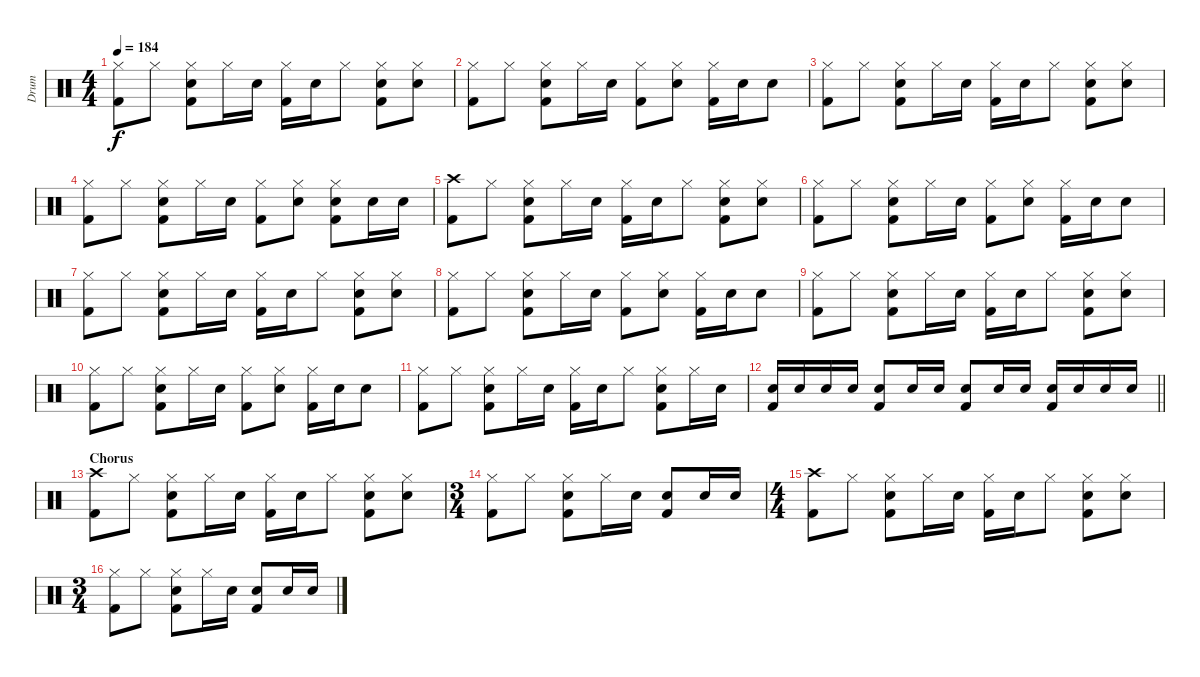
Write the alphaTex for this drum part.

\track ("Drum" "Drum") {instrument percussion}
\staff {score}
\articulation defaults
\ts (4 4)
\tempo 184
\clef neutral
\ks c
("Hi-Hat (closed)" "Kick (hit) 2").8{dy f} "Hi-Hat (closed)".8 ("Hi-Hat (closed)" "Electric Snare (hit)" "Kick (hit) 2").8 "Hi-Hat (closed)".16 "Electric Snare (hit)".16 ("Hi-Hat (closed)" "Kick (hit) 2").16 "Electric Snare (hit)".16 "Hi-Hat (closed)".8 ("Hi-Hat (closed)" "Electric Snare (hit)" "Kick (hit) 2").8 ("Hi-Hat (closed)" "Electric Snare (hit)").8 |
("Hi-Hat (closed)" "Kick (hit) 2").8 "Hi-Hat (closed)".8 ("Hi-Hat (closed)" "Electric Snare (hit)" "Kick (hit) 2").8 "Hi-Hat (closed)".16 "Electric Snare (hit)".16 ("Hi-Hat (closed)" "Kick (hit) 2").8 ("Hi-Hat (closed)" "Electric Snare (hit)").8 ("Hi-Hat (closed)" "Kick (hit) 2").16 "Electric Snare (hit)".16 "Electric Snare (hit)".8 |
("Hi-Hat (closed)" "Kick (hit) 2").8 "Hi-Hat (closed)".8 ("Hi-Hat (closed)" "Electric Snare (hit)" "Kick (hit) 2").8 "Hi-Hat (closed)".16 "Electric Snare (hit)".16 ("Hi-Hat (closed)" "Kick (hit) 2").16 "Electric Snare (hit)".16 "Hi-Hat (closed)".8 ("Hi-Hat (closed)" "Electric Snare (hit)" "Kick (hit) 2").8 ("Hi-Hat (closed)" "Electric Snare (hit)").8 |
("Hi-Hat (closed)" "Kick (hit) 2").8 "Hi-Hat (closed)".8 ("Hi-Hat (closed)" "Electric Snare (hit)" "Kick (hit) 2").8 "Hi-Hat (closed)".16 "Electric Snare (hit)".16 ("Hi-Hat (closed)" "Kick (hit) 2").8 ("Hi-Hat (closed)" "Electric Snare (hit)").8 ("Hi-Hat (closed)" "Electric Snare (hit)" "Kick (hit) 2").8 "Electric Snare (hit)".16 "Electric Snare (hit)".16 |
("Crash high (hit)" "Kick (hit) 2").8 "Hi-Hat (closed)".8 ("Hi-Hat (closed)" "Electric Snare (hit)" "Kick (hit) 2").8 "Hi-Hat (closed)".16 "Electric Snare (hit)".16 ("Hi-Hat (closed)" "Kick (hit) 2").16 "Electric Snare (hit)".16 "Hi-Hat (closed)".8 ("Hi-Hat (closed)" "Electric Snare (hit)" "Kick (hit) 2").8 ("Hi-Hat (closed)" "Electric Snare (hit)").8 |
("Hi-Hat (closed)" "Kick (hit) 2").8 "Hi-Hat (closed)".8 ("Hi-Hat (closed)" "Electric Snare (hit)" "Kick (hit) 2").8 "Hi-Hat (closed)".16 "Electric Snare (hit)".16 ("Hi-Hat (closed)" "Kick (hit) 2").8 ("Hi-Hat (closed)" "Electric Snare (hit)").8 ("Hi-Hat (closed)" "Kick (hit) 2").16 "Electric Snare (hit)".16 "Electric Snare (hit)".8 |
("Hi-Hat (closed)" "Kick (hit) 2").8 "Hi-Hat (closed)".8 ("Hi-Hat (closed)" "Electric Snare (hit)" "Kick (hit) 2").8 "Hi-Hat (closed)".16 "Electric Snare (hit)".16 ("Hi-Hat (closed)" "Kick (hit) 2").16 "Electric Snare (hit)".16 "Hi-Hat (closed)".8 ("Hi-Hat (closed)" "Electric Snare (hit)" "Kick (hit) 2").8 ("Hi-Hat (closed)" "Electric Snare (hit)").8 |
("Hi-Hat (closed)" "Kick (hit) 2").8 "Hi-Hat (closed)".8 ("Hi-Hat (closed)" "Electric Snare (hit)" "Kick (hit) 2").8 "Hi-Hat (closed)".16 "Electric Snare (hit)".16 ("Hi-Hat (closed)" "Kick (hit) 2").8 ("Hi-Hat (closed)" "Electric Snare (hit)").8 ("Hi-Hat (closed)" "Kick (hit) 2").16 "Electric Snare (hit)".16 "Electric Snare (hit)".8 |
("Hi-Hat (closed)" "Kick (hit) 2").8 "Hi-Hat (closed)".8 ("Hi-Hat (closed)" "Electric Snare (hit)" "Kick (hit) 2").8 "Hi-Hat (closed)".16 "Electric Snare (hit)".16 ("Hi-Hat (closed)" "Kick (hit) 2").16 "Electric Snare (hit)".16 "Hi-Hat (closed)".8 ("Hi-Hat (closed)" "Electric Snare (hit)" "Kick (hit) 2").8 ("Hi-Hat (closed)" "Electric Snare (hit)").8 |
("Hi-Hat (closed)" "Kick (hit) 2").8 "Hi-Hat (closed)".8 ("Hi-Hat (closed)" "Electric Snare (hit)" "Kick (hit) 2").8 "Hi-Hat (closed)".16 "Electric Snare (hit)".16 ("Hi-Hat (closed)" "Kick (hit) 2").8 ("Hi-Hat (closed)" "Electric Snare (hit)").8 ("Hi-Hat (closed)" "Kick (hit) 2").16 "Electric Snare (hit)".16 "Electric Snare (hit)".8 |
("Hi-Hat (closed)" "Kick (hit) 2").8 "Hi-Hat (closed)".8 ("Hi-Hat (closed)" "Electric Snare (hit)" "Kick (hit) 2").8 "Hi-Hat (closed)".16 "Electric Snare (hit)".16 ("Hi-Hat (closed)" "Kick (hit) 2").16 "Electric Snare (hit)".16 "Hi-Hat (closed)".8 ("Hi-Hat (closed)" "Electric Snare (hit)" "Kick (hit) 2").8 "Hi-Hat (closed)".16 "Electric Snare (hit)".16 |
\barLineRight lightlight
("Electric Snare (hit)" "Kick (hit) 2").16 "Electric Snare (hit)".16 "Electric Snare (hit)".16 "Electric Snare (hit)".16 ("Electric Snare (hit)" "Kick (hit) 2").8 "Electric Snare (hit)".16 "Electric Snare (hit)".16 ("Electric Snare (hit)" "Kick (hit) 2").8 "Electric Snare (hit)".16 "Electric Snare (hit)".16 ("Electric Snare (hit)" "Kick (hit) 2").16 "Electric Snare (hit)".16 "Electric Snare (hit)".16 "Electric Snare (hit)".16 |
\section ("" "Chorus")
("Crash high (hit)" "Kick (hit) 2").8 "Hi-Hat (closed)".8 ("Hi-Hat (closed)" "Electric Snare (hit)" "Kick (hit) 2").8 "Hi-Hat (closed)".16 "Electric Snare (hit)".16 ("Hi-Hat (closed)" "Kick (hit) 2").16 "Electric Snare (hit)".16 "Hi-Hat (closed)".8 ("Hi-Hat (closed)" "Electric Snare (hit)" "Kick (hit) 2").8 ("Hi-Hat (closed)" "Electric Snare (hit)").8 |
\ts (3 4)
("Hi-Hat (closed)" "Kick (hit) 2").8 "Hi-Hat (closed)".8 ("Hi-Hat (closed)" "Electric Snare (hit)" "Kick (hit) 2").8 "Hi-Hat (closed)".16 "Electric Snare (hit)".16 ("Electric Snare (hit)" "Kick (hit) 2").8 "Electric Snare (hit)".16 "Electric Snare (hit)".16 |
\ts (4 4)
("Crash high (hit)" "Kick (hit) 2").8 "Hi-Hat (closed)".8 ("Hi-Hat (closed)" "Electric Snare (hit)" "Kick (hit) 2").8 "Hi-Hat (closed)".16 "Electric Snare (hit)".16 ("Hi-Hat (closed)" "Kick (hit) 2").16 "Electric Snare (hit)".16 "Hi-Hat (closed)".8 ("Hi-Hat (closed)" "Electric Snare (hit)" "Kick (hit) 2").8 ("Hi-Hat (closed)" "Electric Snare (hit)").8 |
\ts (3 4)
("Hi-Hat (closed)" "Kick (hit) 2").8 "Hi-Hat (closed)".8 ("Hi-Hat (closed)" "Electric Snare (hit)" "Kick (hit) 2").8 "Hi-Hat (closed)".16 "Electric Snare (hit)".16 ("Electric Snare (hit)" "Kick (hit) 2").8 "Electric Snare (hit)".16 "Electric Snare (hit)".16
